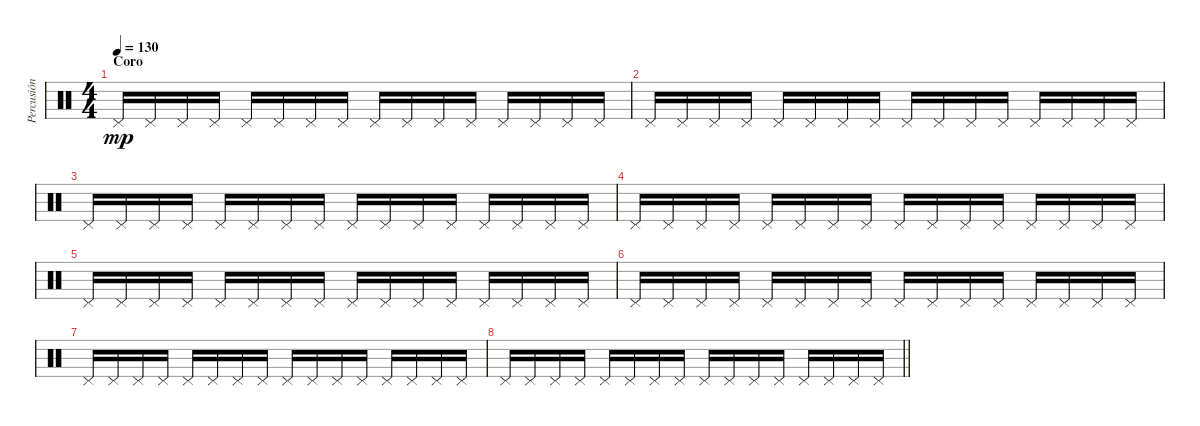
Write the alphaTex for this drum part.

\track ("Percusión" "Percusión") {instrument percussion}
\staff {score}
\articulation defaults
\ts (4 4)
\section ("" "Coro")
\tempo 130
\clef neutral
\ks c "Pedal Hi-Hat (hit)".16{dy mp} "Pedal Hi-Hat (hit)".16 "Pedal Hi-Hat (hit)".16 "Pedal Hi-Hat (hit)".16 "Pedal Hi-Hat (hit)".16 "Pedal Hi-Hat (hit)".16 "Pedal Hi-Hat (hit)".16 "Pedal Hi-Hat (hit)".16 "Pedal Hi-Hat (hit)".16 "Pedal Hi-Hat (hit)".16 "Pedal Hi-Hat (hit)".16 "Pedal Hi-Hat (hit)".16 "Pedal Hi-Hat (hit)".16 "Pedal Hi-Hat (hit)".16 "Pedal Hi-Hat (hit)".16 "Pedal Hi-Hat (hit)".16
|
"Pedal Hi-Hat (hit)".16 "Pedal Hi-Hat (hit)".16 "Pedal Hi-Hat (hit)".16 "Pedal Hi-Hat (hit)".16 "Pedal Hi-Hat (hit)".16 "Pedal Hi-Hat (hit)".16 "Pedal Hi-Hat (hit)".16 "Pedal Hi-Hat (hit)".16 "Pedal Hi-Hat (hit)".16 "Pedal Hi-Hat (hit)".16 "Pedal Hi-Hat (hit)".16 "Pedal Hi-Hat (hit)".16 "Pedal Hi-Hat (hit)".16 "Pedal Hi-Hat (hit)".16 "Pedal Hi-Hat (hit)".16 "Pedal Hi-Hat (hit)".16 |
"Pedal Hi-Hat (hit)".16 "Pedal Hi-Hat (hit)".16 "Pedal Hi-Hat (hit)".16 "Pedal Hi-Hat (hit)".16 "Pedal Hi-Hat (hit)".16 "Pedal Hi-Hat (hit)".16 "Pedal Hi-Hat (hit)".16 "Pedal Hi-Hat (hit)".16 "Pedal Hi-Hat (hit)".16 "Pedal Hi-Hat (hit)".16 "Pedal Hi-Hat (hit)".16 "Pedal Hi-Hat (hit)".16 "Pedal Hi-Hat (hit)".16 "Pedal Hi-Hat (hit)".16 "Pedal Hi-Hat (hit)".16 "Pedal Hi-Hat (hit)".16 |
"Pedal Hi-Hat (hit)".16 "Pedal Hi-Hat (hit)".16 "Pedal Hi-Hat (hit)".16 "Pedal Hi-Hat (hit)".16 "Pedal Hi-Hat (hit)".16 "Pedal Hi-Hat (hit)".16 "Pedal Hi-Hat (hit)".16 "Pedal Hi-Hat (hit)".16 "Pedal Hi-Hat (hit)".16 "Pedal Hi-Hat (hit)".16 "Pedal Hi-Hat (hit)".16 "Pedal Hi-Hat (hit)".16 "Pedal Hi-Hat (hit)".16 "Pedal Hi-Hat (hit)".16 "Pedal Hi-Hat (hit)".16 "Pedal Hi-Hat (hit)".16 |
"Pedal Hi-Hat (hit)".16 "Pedal Hi-Hat (hit)".16 "Pedal Hi-Hat (hit)".16 "Pedal Hi-Hat (hit)".16 "Pedal Hi-Hat (hit)".16 "Pedal Hi-Hat (hit)".16 "Pedal Hi-Hat (hit)".16 "Pedal Hi-Hat (hit)".16 "Pedal Hi-Hat (hit)".16 "Pedal Hi-Hat (hit)".16 "Pedal Hi-Hat (hit)".16 "Pedal Hi-Hat (hit)".16 "Pedal Hi-Hat (hit)".16 "Pedal Hi-Hat (hit)".16 "Pedal Hi-Hat (hit)".16 "Pedal Hi-Hat (hit)".16 |
"Pedal Hi-Hat (hit)".16 "Pedal Hi-Hat (hit)".16 "Pedal Hi-Hat (hit)".16 "Pedal Hi-Hat (hit)".16 "Pedal Hi-Hat (hit)".16 "Pedal Hi-Hat (hit)".16 "Pedal Hi-Hat (hit)".16 "Pedal Hi-Hat (hit)".16 "Pedal Hi-Hat (hit)".16 "Pedal Hi-Hat (hit)".16 "Pedal Hi-Hat (hit)".16 "Pedal Hi-Hat (hit)".16 "Pedal Hi-Hat (hit)".16 "Pedal Hi-Hat (hit)".16 "Pedal Hi-Hat (hit)".16 "Pedal Hi-Hat (hit)".16 |
"Pedal Hi-Hat (hit)".16 "Pedal Hi-Hat (hit)".16 "Pedal Hi-Hat (hit)".16 "Pedal Hi-Hat (hit)".16 "Pedal Hi-Hat (hit)".16 "Pedal Hi-Hat (hit)".16 "Pedal Hi-Hat (hit)".16 "Pedal Hi-Hat (hit)".16 "Pedal Hi-Hat (hit)".16 "Pedal Hi-Hat (hit)".16 "Pedal Hi-Hat (hit)".16 "Pedal Hi-Hat (hit)".16 "Pedal Hi-Hat (hit)".16 "Pedal Hi-Hat (hit)".16 "Pedal Hi-Hat (hit)".16 "Pedal Hi-Hat (hit)".16 |
\barLineRight lightlight "Pedal Hi-Hat (hit)".16 "Pedal Hi-Hat (hit)".16 "Pedal Hi-Hat (hit)".16 "Pedal Hi-Hat (hit)".16 "Pedal Hi-Hat (hit)".16 "Pedal Hi-Hat (hit)".16 "Pedal Hi-Hat (hit)".16 "Pedal Hi-Hat (hit)".16 "Pedal Hi-Hat (hit)".16 "Pedal Hi-Hat (hit)".16 "Pedal Hi-Hat (hit)".16 "Pedal Hi-Hat (hit)".16 "Pedal Hi-Hat (hit)".16 "Pedal Hi-Hat (hit)".16 "Pedal Hi-Hat (hit)".16 "Pedal Hi-Hat (hit)".16
